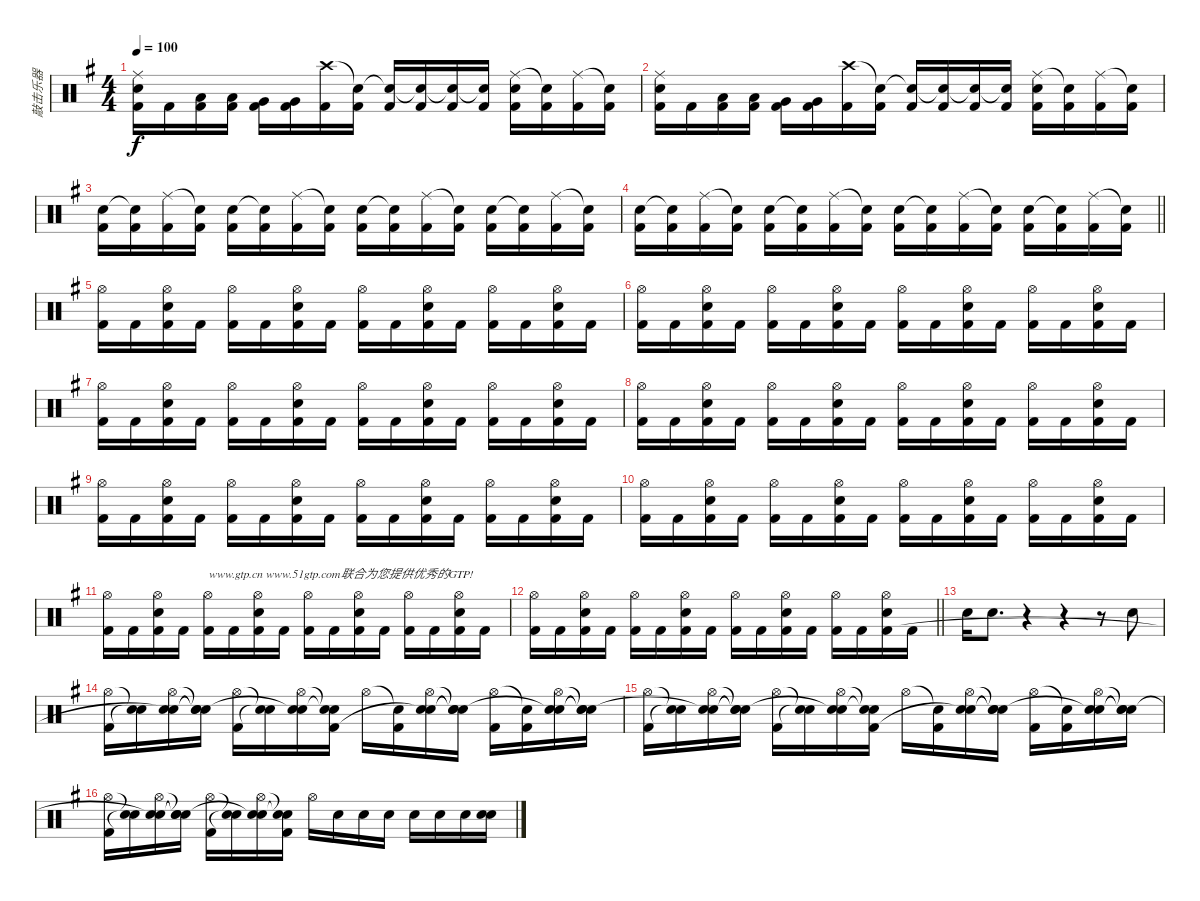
\track ("敲击乐器" "敲击乐器") {instrument percussion}
\staff {score}
\articulation defaults
\ts (4 4)
\tempo 100
\clef neutral
\ks eminor
("Ride (middle)" "Snare (hit) 2" "Kick (hit) 2").16{dy f} "Kick (hit) 2".16 ("Low Tom (hit)" "Kick (hit) 2").16 ("Low Tom (hit)" "Kick (hit) 2").16 ("Very Low Tom (hit)" "Kick (hit) 2").16 ("Very Low Tom (hit)" "Kick (hit) 2").16 ("Crash high (hit)" "Kick (hit) 2").16 ("Snare (hit)"{t} "Kick (hit) 2").16 ("Snare (hit)"{t} "Kick (hit) 2").16 ("Snare (hit)"{t} "Kick (hit) 2").16 ("Snare (hit)"{t} "Kick (hit) 2").16 ("Snare (hit)"{t} "Kick (hit) 2").16 ("Ride (middle)" "Snare (hit) 2" "Kick (hit) 2").16 ("Snare (hit)"{t} "Kick (hit) 2").16 ("Ride (middle)" "Kick (hit) 2").16 ("Snare (hit)"{t} "Kick (hit) 2").16 |
("Ride (middle)" "Snare (hit) 2" "Kick (hit) 2").16 "Kick (hit) 2".16 ("Low Tom (hit)" "Kick (hit) 2").16 ("Low Tom (hit)" "Kick (hit) 2").16 ("Very Low Tom (hit)" "Kick (hit) 2").16 ("Very Low Tom (hit)" "Kick (hit) 2").16 ("Crash high (hit)" "Kick (hit) 2").16 ("Snare (hit)"{t} "Kick (hit) 2").16 ("Snare (hit)"{t} "Kick (hit) 2").16 ("Snare (hit)"{t} "Kick (hit) 2").16 ("Snare (hit)"{t} "Kick (hit) 2").16 ("Snare (hit)"{t} "Kick (hit) 2").16 ("Ride (middle)" "Snare (hit) 2" "Kick (hit) 2").16 ("Snare (hit)"{t} "Kick (hit) 2").16 ("Ride (middle)" "Kick (hit) 2").16 ("Snare (hit)"{t} "Kick (hit) 2").16 |
("Snare (hit) 2" "Kick (hit) 2").16 ("Snare (hit)"{t} "Kick (hit) 2").16 ("Ride (middle)" "Kick (hit) 2").16 ("Snare (hit)"{t} "Kick (hit) 2").16 ("Snare (hit) 2" "Kick (hit) 2").16 ("Snare (hit)"{t} "Kick (hit) 2").16 ("Ride (middle)" "Kick (hit) 2").16 ("Snare (hit)"{t} "Kick (hit) 2").16 ("Snare (hit) 2" "Kick (hit) 2").16 ("Snare (hit)"{t} "Kick (hit) 2").16 ("Ride (middle)" "Kick (hit) 2").16 ("Snare (hit)"{t} "Kick (hit) 2").16 ("Snare (hit) 2" "Kick (hit) 2").16 ("Snare (hit)"{t} "Kick (hit) 2").16 ("Ride (middle)" "Kick (hit) 2").16 ("Snare (hit)"{t} "Kick (hit) 2").16 |
\barLineRight lightlight
("Snare (hit) 2" "Kick (hit) 2").16 ("Snare (hit)"{t} "Kick (hit) 2").16 ("Ride (middle)" "Kick (hit) 2").16 ("Snare (hit)"{t} "Kick (hit) 2").16 ("Snare (hit) 2" "Kick (hit) 2").16 ("Snare (hit)"{t} "Kick (hit) 2").16 ("Ride (middle)" "Kick (hit) 2").16 ("Snare (hit)"{t} "Kick (hit) 2").16 ("Snare (hit) 2" "Kick (hit) 2").16 ("Snare (hit)"{t} "Kick (hit) 2").16 ("Ride (middle)" "Kick (hit) 2").16 ("Snare (hit)"{t} "Kick (hit) 2").16 ("Snare (hit) 2" "Kick (hit) 2").16 ("Snare (hit)"{t} "Kick (hit) 2").16 ("Ride (middle)" "Kick (hit) 2").16 ("Snare (hit)"{t} "Kick (hit) 2").16 |
("Hi-Hat (open)" "Kick (hit) 2").16 "Kick (hit) 2".16 ("Hi-Hat (open)" "Snare (hit) 2" "Kick (hit) 2").16 "Kick (hit) 2".16 ("Hi-Hat (open)" "Kick (hit) 2").16 "Kick (hit) 2".16 ("Hi-Hat (open)" "Snare (hit) 2" "Kick (hit) 2").16 "Kick (hit) 2".16 ("Hi-Hat (open)" "Kick (hit) 2").16 "Kick (hit) 2".16 ("Hi-Hat (open)" "Snare (hit) 2" "Kick (hit) 2").16 "Kick (hit) 2".16 ("Hi-Hat (open)" "Kick (hit) 2").16 "Kick (hit) 2".16 ("Hi-Hat (open)" "Snare (hit) 2" "Kick (hit) 2").16 "Kick (hit) 2".16 |
("Hi-Hat (open)" "Kick (hit) 2").16 "Kick (hit) 2".16 ("Hi-Hat (open)" "Snare (hit) 2" "Kick (hit) 2").16 "Kick (hit) 2".16 ("Hi-Hat (open)" "Kick (hit) 2").16 "Kick (hit) 2".16 ("Hi-Hat (open)" "Snare (hit) 2" "Kick (hit) 2").16 "Kick (hit) 2".16 ("Hi-Hat (open)" "Kick (hit) 2").16 "Kick (hit) 2".16 ("Hi-Hat (open)" "Snare (hit) 2" "Kick (hit) 2").16 "Kick (hit) 2".16 ("Hi-Hat (open)" "Kick (hit) 2").16 "Kick (hit) 2".16 ("Hi-Hat (open)" "Snare (hit) 2" "Kick (hit) 2").16 "Kick (hit) 2".16 |
("Hi-Hat (open)" "Kick (hit) 2").16 "Kick (hit) 2".16 ("Hi-Hat (open)" "Snare (hit) 2" "Kick (hit) 2").16 "Kick (hit) 2".16 ("Hi-Hat (open)" "Kick (hit) 2").16 "Kick (hit) 2".16 ("Hi-Hat (open)" "Snare (hit) 2" "Kick (hit) 2").16 "Kick (hit) 2".16 ("Hi-Hat (open)" "Kick (hit) 2").16 "Kick (hit) 2".16 ("Hi-Hat (open)" "Snare (hit) 2" "Kick (hit) 2").16 "Kick (hit) 2".16 ("Hi-Hat (open)" "Kick (hit) 2").16 "Kick (hit) 2".16 ("Hi-Hat (open)" "Snare (hit) 2" "Kick (hit) 2").16 "Kick (hit) 2".16 |
("Hi-Hat (open)" "Kick (hit) 2").16 "Kick (hit) 2".16 ("Hi-Hat (open)" "Snare (hit) 2" "Kick (hit) 2").16 "Kick (hit) 2".16 ("Hi-Hat (open)" "Kick (hit) 2").16 "Kick (hit) 2".16 ("Hi-Hat (open)" "Snare (hit) 2" "Kick (hit) 2").16 "Kick (hit) 2".16 ("Hi-Hat (open)" "Kick (hit) 2").16 "Kick (hit) 2".16 ("Hi-Hat (open)" "Snare (hit) 2" "Kick (hit) 2").16 "Kick (hit) 2".16 ("Hi-Hat (open)" "Kick (hit) 2").16 "Kick (hit) 2".16 ("Hi-Hat (open)" "Snare (hit) 2" "Kick (hit) 2").16 "Kick (hit) 2".16 |
("Hi-Hat (open)" "Kick (hit) 2").16 "Kick (hit) 2".16 ("Hi-Hat (open)" "Snare (hit) 2" "Kick (hit) 2").16 "Kick (hit) 2".16 ("Hi-Hat (open)" "Kick (hit) 2").16 "Kick (hit) 2".16 ("Hi-Hat (open)" "Snare (hit) 2" "Kick (hit) 2").16 "Kick (hit) 2".16 ("Hi-Hat (open)" "Kick (hit) 2").16 "Kick (hit) 2".16 ("Hi-Hat (open)" "Snare (hit) 2" "Kick (hit) 2").16 "Kick (hit) 2".16 ("Hi-Hat (open)" "Kick (hit) 2").16 "Kick (hit) 2".16 ("Hi-Hat (open)" "Snare (hit) 2" "Kick (hit) 2").16 "Kick (hit) 2".16 |
("Hi-Hat (open)" "Kick (hit) 2").16 "Kick (hit) 2".16 ("Hi-Hat (open)" "Snare (hit) 2" "Kick (hit) 2").16 "Kick (hit) 2".16 ("Hi-Hat (open)" "Kick (hit) 2").16 "Kick (hit) 2".16 ("Hi-Hat (open)" "Snare (hit) 2" "Kick (hit) 2").16 "Kick (hit) 2".16 ("Hi-Hat (open)" "Kick (hit) 2").16 "Kick (hit) 2".16 ("Hi-Hat (open)" "Snare (hit) 2" "Kick (hit) 2").16 "Kick (hit) 2".16 ("Hi-Hat (open)" "Kick (hit) 2").16 "Kick (hit) 2".16 ("Hi-Hat (open)" "Snare (hit) 2" "Kick (hit) 2").16 "Kick (hit) 2".16 |
("Hi-Hat (open)" "Kick (hit) 2").16 "Kick (hit) 2".16 ("Hi-Hat (open)" "Snare (hit) 2" "Kick (hit) 2").16 "Kick (hit) 2".16 ("Hi-Hat (open)" "Kick (hit) 2").16{txt "www.gtp.cn www.51gtp.com联合为您提供优秀的GTP!"} "Kick (hit) 2".16 ("Hi-Hat (open)" "Snare (hit) 2" "Kick (hit) 2").16 "Kick (hit) 2".16 ("Hi-Hat (open)" "Kick (hit) 2").16 "Kick (hit) 2".16 ("Hi-Hat (open)" "Snare (hit) 2" "Kick (hit) 2").16 "Kick (hit) 2".16 ("Hi-Hat (open)" "Kick (hit) 2").16 "Kick (hit) 2".16 ("Hi-Hat (open)" "Snare (hit) 2" "Kick (hit) 2").16 "Kick (hit) 2".16 |
\barLineRight lightlight
("Hi-Hat (open)" "Kick (hit) 2").16 "Kick (hit) 2".16 ("Hi-Hat (open)" "Snare (hit) 2" "Kick (hit) 2").16 "Kick (hit) 2".16 ("Hi-Hat (open)" "Kick (hit) 2").16 "Kick (hit) 2".16 ("Hi-Hat (open)" "Snare (hit) 2" "Kick (hit) 2").16 "Kick (hit) 2".16 ("Hi-Hat (open)" "Kick (hit) 2").16 "Kick (hit) 2".16 ("Hi-Hat (open)" "Snare (hit) 2" "Kick (hit) 2").16 "Kick (hit) 2".16 ("Hi-Hat (open)" "Kick (hit) 2").16 "Kick (hit) 2".16 ("Hi-Hat (open)" "Snare (hit) 2" "Kick (hit) 2").16 "Kick (hit) 2".16 |
"Snare (hit) 2".16 "Snare (hit) 2".8{d} r.4 r.4 r.8 "Snare (hit) 2".8 |
("Hi-Hat (open)" "Kick (hit) 2").16 ("Snare (hit)"{t} "Snare (hit)"{t}).16 ("Hi-Hat (open)" "Snare (hit) 2" "Snare (hit)"{t}).16 ("Snare (hit)"{t} "Snare (hit)"{t} "Snare (hit)"{t}).16 ("Hi-Hat (open)" "Kick (hit) 2").16 ("Snare (hit)"{t} "Snare (hit)"{t}).16 ("Hi-Hat (open)" "Snare (hit) 2" "Snare (hit)"{t}).16 ("Snare (hit)"{t} "Snare (hit)"{t} "Kick (hit) 2").16 "Hi-Hat (open)".16 ("Snare (hit)"{t} "Kick (hit) 2").16 ("Hi-Hat (open)" "Snare (hit) 2" "Snare (hit)"{t}).16 ("Snare (hit)"{t} "Snare (hit)"{t} "Snare (hit)"{t}).16 ("Hi-Hat (open)" "Kick (hit) 2").16 ("Snare (hit)"{t} "Kick (hit) 2").16 ("Hi-Hat (open)" "Snare (hit) 2" "Snare (hit)"{t}).16 ("Snare (hit)"{t} "Snare (hit)"{t} "Snare (hit)"{t}).16 |
("Hi-Hat (open)" "Kick (hit) 2").16 ("Snare (hit)"{t} "Snare (hit)"{t}).16 ("Hi-Hat (open)" "Snare (hit) 2" "Snare (hit)"{t}).16 ("Snare (hit)"{t} "Snare (hit)"{t} "Snare (hit)"{t}).16 ("Hi-Hat (open)" "Kick (hit) 2").16 ("Snare (hit)"{t} "Snare (hit)"{t}).16 ("Hi-Hat (open)" "Snare (hit) 2" "Snare (hit)"{t}).16 ("Snare (hit)"{t} "Snare (hit)"{t} "Kick (hit) 2").16 "Hi-Hat (open)".16 ("Snare (hit)"{t} "Kick (hit) 2").16 ("Hi-Hat (open)" "Snare (hit) 2" "Snare (hit)"{t}).16 ("Snare (hit)"{t} "Snare (hit)"{t} "Snare (hit)"{t}).16 ("Hi-Hat (open)" "Kick (hit) 2").16 ("Snare (hit)"{t} "Kick (hit) 2").16 ("Hi-Hat (open)" "Snare (hit) 2" "Snare (hit)"{t}).16 ("Snare (hit)"{t} "Snare (hit)"{t} "Snare (hit)"{t}).16 |
("Hi-Hat (open)" "Kick (hit) 2").16 ("Snare (hit)"{t} "Snare (hit)"{t}).16 ("Hi-Hat (open)" "Snare (hit) 2" "Snare (hit)"{t}).16 ("Snare (hit)"{t} "Snare (hit)"{t} "Snare (hit)"{t}).16 ("Hi-Hat (open)" "Kick (hit) 2").16 ("Snare (hit)"{t} "Snare (hit)"{t}).16 ("Hi-Hat (open)" "Snare (hit) 2" "Snare (hit)"{t}).16 ("Snare (hit)"{t} "Snare (hit)"{t} "Kick (hit) 2").16 "Hi-Hat (open)".16 "Snare (hit) 2".16 "Snare (hit) 2".16 "Snare (hit) 2".16 "Snare (hit) 2".16 "Snare (hit) 2".16 "Snare (hit) 2".16 ("Snare (hit) 2" "Snare (hit) 2").16
